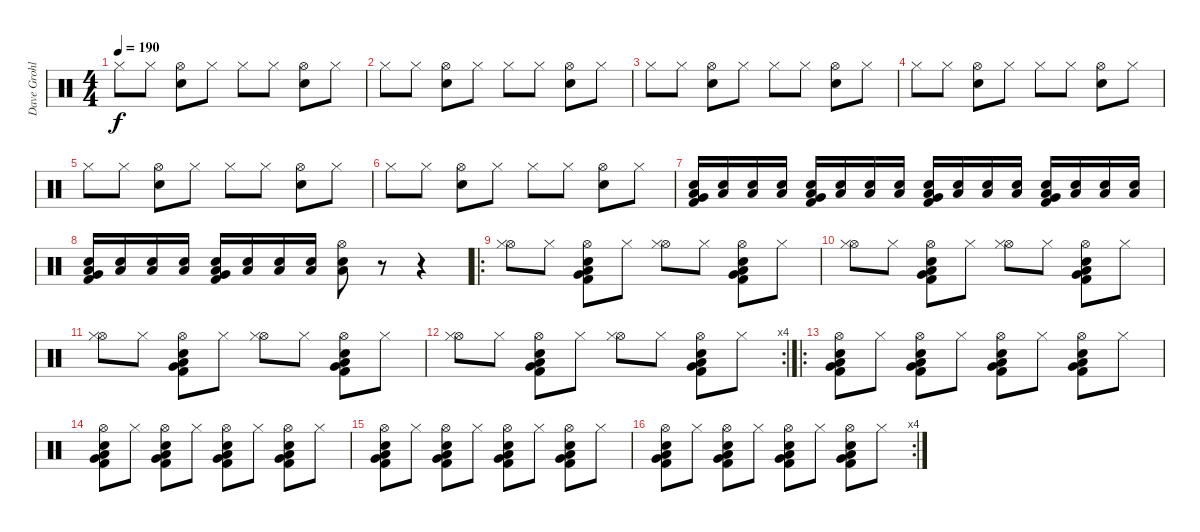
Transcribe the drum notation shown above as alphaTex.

\track ("Dave Grohl (Drums)" "Dave Grohl") {instrument percussion}
\staff {score}
\articulation defaults
\ts (4 4)
\tempo 190
\clef neutral
\ks c "Hi-Hat (closed)".8{dy f} "Hi-Hat (closed)".8
("Hi-Hat (open)" "Snare (hit) 2").8 "Hi-Hat (closed)".8 "Hi-Hat (closed)".8 "Hi-Hat (closed)".8 ("Hi-Hat (open)" "Snare (hit) 2").8 "Hi-Hat (closed)".8 |
"Hi-Hat (closed)".8 "Hi-Hat (closed)".8 ("Hi-Hat (open)" "Snare (hit) 2").8 "Hi-Hat (closed)".8 "Hi-Hat (closed)".8 "Hi-Hat (closed)".8 ("Hi-Hat (open)" "Snare (hit) 2").8 "Hi-Hat (closed)".8 |
"Hi-Hat (closed)".8 "Hi-Hat (closed)".8 ("Hi-Hat (open)" "Snare (hit) 2").8 "Hi-Hat (closed)".8 "Hi-Hat (closed)".8 "Hi-Hat (closed)".8 ("Hi-Hat (open)" "Snare (hit) 2").8 "Hi-Hat (closed)".8 |
"Hi-Hat (closed)".8 "Hi-Hat (closed)".8 ("Hi-Hat (open)" "Snare (hit) 2").8 "Hi-Hat (closed)".8 "Hi-Hat (closed)".8 "Hi-Hat (closed)".8 ("Hi-Hat (open)" "Snare (hit) 2").8 "Hi-Hat (closed)".8 |
"Hi-Hat (closed)".8 "Hi-Hat (closed)".8 ("Hi-Hat (open)" "Snare (hit) 2").8 "Hi-Hat (closed)".8 "Hi-Hat (closed)".8 "Hi-Hat (closed)".8 ("Hi-Hat (open)" "Snare (hit) 2").8 "Hi-Hat (closed)".8 |
"Hi-Hat (closed)".8 "Hi-Hat (closed)".8 ("Hi-Hat (open)" "Snare (hit) 2").8 "Hi-Hat (closed)".8 "Hi-Hat (closed)".8 "Hi-Hat (closed)".8 ("Hi-Hat (open)" "Snare (hit) 2").8 "Hi-Hat (closed)".8 |
("Low Tom (hit)" "Snare (hit) 2" "Kick (hit) 2" "Very Low Tom (hit)").16 ("Low Tom (hit)" "Snare (hit) 2").16 ("Low Tom (hit)" "Snare (hit) 2").16 ("Low Tom (hit)" "Snare (hit) 2").16 ("Low Tom (hit)" "Snare (hit) 2" "Kick (hit) 2" "Very Low Tom (hit)").16 ("Low Tom (hit)" "Snare (hit) 2").16 ("Low Tom (hit)" "Snare (hit) 2").16 ("Low Tom (hit)" "Snare (hit) 2").16 ("Low Tom (hit)" "Snare (hit) 2" "Kick (hit) 2" "Very Low Tom (hit)").16 ("Low Tom (hit)" "Snare (hit) 2").16 ("Low Tom (hit)" "Snare (hit) 2").16 ("Low Tom (hit)" "Snare (hit) 2").16 ("Low Tom (hit)" "Snare (hit) 2" "Kick (hit) 2" "Very Low Tom (hit)").16 ("Low Tom (hit)" "Snare (hit) 2").16 ("Low Tom (hit)" "Snare (hit) 2").16 ("Low Tom (hit)" "Snare (hit) 2").16 |
("Snare (hit) 2" "Low Tom (hit)" "Kick (hit) 2" "Very Low Tom (hit)").16 ("Snare (hit) 2" "Low Tom (hit)").16 ("Snare (hit) 2" "Low Tom (hit)").16 ("Snare (hit) 2" "Low Tom (hit)").16 ("Snare (hit) 2" "Low Tom (hit)" "Kick (hit) 2" "Very Low Tom (hit)").16 ("Snare (hit) 2" "Low Tom (hit)").16 ("Snare (hit) 2" "Low Tom (hit)").16 ("Snare (hit) 2" "Low Tom (hit)").16 ("Snare (hit) 2" "Low Tom (hit)" "Hi-Hat (open)").8 r.8 r.4 |
\ro
("Hi-Hat (open)" "Hi-Hat (closed)").8 "Hi-Hat (closed)".8 ("Snare (hit) 2" "Low Tom (hit)" "Hi-Hat (open)" "Very Low Tom (hit)" "Kick (hit) 2").8 "Hi-Hat (closed)".8 ("Hi-Hat (open)" "Hi-Hat (closed)").8 "Hi-Hat (closed)".8 ("Snare (hit) 2" "Low Tom (hit)" "Hi-Hat (open)" "Very Low Tom (hit)" "Kick (hit) 2").8 "Hi-Hat (closed)".8 |
("Hi-Hat (open)" "Hi-Hat (closed)").8 "Hi-Hat (closed)".8 ("Snare (hit) 2" "Low Tom (hit)" "Hi-Hat (open)" "Very Low Tom (hit)" "Kick (hit) 2").8 "Hi-Hat (closed)".8 ("Hi-Hat (open)" "Hi-Hat (closed)").8 "Hi-Hat (closed)".8 ("Snare (hit) 2" "Low Tom (hit)" "Hi-Hat (open)" "Very Low Tom (hit)" "Kick (hit) 2").8 "Hi-Hat (closed)".8 |
("Hi-Hat (open)" "Hi-Hat (closed)").8 "Hi-Hat (closed)".8 ("Snare (hit) 2" "Low Tom (hit)" "Hi-Hat (open)" "Very Low Tom (hit)" "Kick (hit) 2").8 "Hi-Hat (closed)".8 ("Hi-Hat (open)" "Hi-Hat (closed)").8 "Hi-Hat (closed)".8 ("Snare (hit) 2" "Low Tom (hit)" "Hi-Hat (open)" "Very Low Tom (hit)" "Kick (hit) 2").8 "Hi-Hat (closed)".8 |
\rc 4
("Hi-Hat (open)" "Hi-Hat (closed)").8 "Hi-Hat (closed)".8 ("Snare (hit) 2" "Low Tom (hit)" "Hi-Hat (open)" "Very Low Tom (hit)" "Kick (hit) 2").8 "Hi-Hat (closed)".8 ("Hi-Hat (open)" "Hi-Hat (closed)").8 "Hi-Hat (closed)".8 ("Snare (hit) 2" "Low Tom (hit)" "Hi-Hat (open)" "Very Low Tom (hit)" "Kick (hit) 2").8 "Hi-Hat (closed)".8 |
\ro
("Snare (hit) 2" "Low Tom (hit)" "Hi-Hat (open)" "Very Low Tom (hit)" "Kick (hit) 2").8 "Hi-Hat (closed)".8 ("Snare (hit) 2" "Low Tom (hit)" "Hi-Hat (open)" "Very Low Tom (hit)" "Kick (hit) 2").8 "Hi-Hat (closed)".8 ("Snare (hit) 2" "Low Tom (hit)" "Hi-Hat (open)" "Very Low Tom (hit)" "Kick (hit) 2").8 "Hi-Hat (closed)".8 ("Snare (hit) 2" "Low Tom (hit)" "Hi-Hat (open)" "Very Low Tom (hit)" "Kick (hit) 2").8 "Hi-Hat (closed)".8 |
("Snare (hit) 2" "Low Tom (hit)" "Hi-Hat (open)" "Very Low Tom (hit)" "Kick (hit) 2").8 "Hi-Hat (closed)".8 ("Snare (hit) 2" "Low Tom (hit)" "Hi-Hat (open)" "Very Low Tom (hit)" "Kick (hit) 2").8 "Hi-Hat (closed)".8 ("Snare (hit) 2" "Low Tom (hit)" "Hi-Hat (open)" "Very Low Tom (hit)" "Kick (hit) 2").8 "Hi-Hat (closed)".8 ("Snare (hit) 2" "Low Tom (hit)" "Hi-Hat (open)" "Very Low Tom (hit)" "Kick (hit) 2").8 "Hi-Hat (closed)".8 |
("Snare (hit) 2" "Low Tom (hit)" "Hi-Hat (open)" "Very Low Tom (hit)" "Kick (hit) 2").8 "Hi-Hat (closed)".8 ("Snare (hit) 2" "Low Tom (hit)" "Hi-Hat (open)" "Very Low Tom (hit)" "Kick (hit) 2").8 "Hi-Hat (closed)".8 ("Snare (hit) 2" "Low Tom (hit)" "Hi-Hat (open)" "Very Low Tom (hit)" "Kick (hit) 2").8 "Hi-Hat (closed)".8 ("Snare (hit) 2" "Low Tom (hit)" "Hi-Hat (open)" "Very Low Tom (hit)" "Kick (hit) 2").8 "Hi-Hat (closed)".8 |
\rc 4
("Snare (hit) 2" "Low Tom (hit)" "Hi-Hat (open)" "Very Low Tom (hit)" "Kick (hit) 2").8 "Hi-Hat (closed)".8 ("Snare (hit) 2" "Low Tom (hit)" "Hi-Hat (open)" "Very Low Tom (hit)" "Kick (hit) 2").8 "Hi-Hat (closed)".8 ("Snare (hit) 2" "Low Tom (hit)" "Hi-Hat (open)" "Very Low Tom (hit)" "Kick (hit) 2").8 "Hi-Hat (closed)".8 ("Snare (hit) 2" "Low Tom (hit)" "Hi-Hat (open)" "Very Low Tom (hit)" "Kick (hit) 2").8 "Hi-Hat (closed)".8
